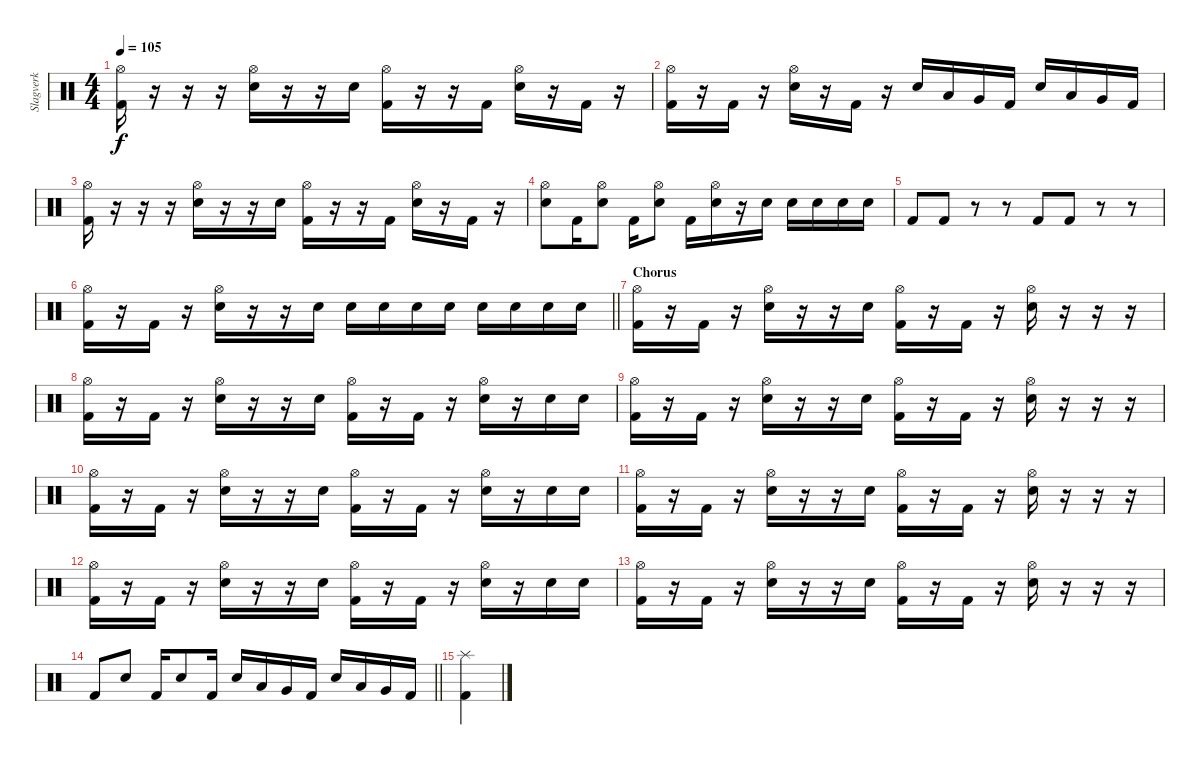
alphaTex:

\track ("Slagverk" "Slagverk") {instrument percussion}
\staff {score}
\articulation defaults
\ts (4 4)
\tempo 105
\clef neutral
\ks c
("Hi-Hat (open)" "Kick (hit) 2").16{dy f} r.16 r.16 r.16 ("Hi-Hat (open)" "Electric Snare (hit)").16 r.16 r.16 "Electric Snare (hit)".16 ("Hi-Hat (open)" "Kick (hit) 2").16 r.16 r.16 "Kick (hit) 2".16 ("Hi-Hat (open)" "Electric Snare (hit)").16 r.16 "Kick (hit) 2".16 r.16 |
("Hi-Hat (open)" "Kick (hit) 2").16 r.16 "Kick (hit) 2".16 r.16 ("Hi-Hat (open)" "Electric Snare (hit)").16 r.16 "Kick (hit) 2".16 r.16 "Electric Snare (hit)".16 "Low Tom (hit)".16 "Very Low Tom (hit)".16 "Kick (hit) 2".16 "Electric Snare (hit)".16 "Low Tom (hit)".16 "Very Low Tom (hit)".16 "Kick (hit) 2".16 |
("Hi-Hat (open)" "Kick (hit) 2").16 r.16 r.16 r.16 ("Hi-Hat (open)" "Electric Snare (hit)").16 r.16 r.16 "Electric Snare (hit)".16 ("Hi-Hat (open)" "Kick (hit) 2").16 r.16 r.16 "Kick (hit) 2".16 ("Hi-Hat (open)" "Electric Snare (hit)").16 r.16 "Kick (hit) 2".16 r.16 |
("Hi-Hat (open)" "Electric Snare (hit)").8 "Kick (hit) 2".16 ("Hi-Hat (open)" "Electric Snare (hit)").8 "Kick (hit) 2".16 ("Hi-Hat (open)" "Electric Snare (hit)").8 "Kick (hit) 2".16 ("Hi-Hat (open)" "Electric Snare (hit)").16 r.16 "Electric Snare (hit)".16 "Electric Snare (hit)".16 "Electric Snare (hit)".16 "Electric Snare (hit)".16 "Electric Snare (hit)".16 |
"Kick (hit) 2".8 "Kick (hit) 2".8 r.8 r.8 "Kick (hit) 2".8 "Kick (hit) 2".8 r.8 r.8 |
\barLineRight lightlight
("Hi-Hat (open)" "Kick (hit) 2").16 r.16 "Kick (hit) 2".16 r.16 ("Hi-Hat (open)" "Electric Snare (hit)").16 r.16 r.16 "Electric Snare (hit)".16 "Electric Snare (hit)".16 "Electric Snare (hit)".16 "Electric Snare (hit)".16 "Electric Snare (hit)".16 "Electric Snare (hit)".16 "Electric Snare (hit)".16 "Electric Snare (hit)".16 "Electric Snare (hit)".16 |
\section ("" "Chorus")
("Hi-Hat (open)" "Kick (hit) 2").16 r.16 "Kick (hit) 2".16 r.16 ("Hi-Hat (open)" "Electric Snare (hit)").16 r.16 r.16 "Electric Snare (hit)".16 ("Hi-Hat (open)" "Kick (hit) 2").16 r.16 "Kick (hit) 2".16 r.16 ("Hi-Hat (open)" "Electric Snare (hit)").16 r.16 r.16 r.16 |
("Hi-Hat (open)" "Kick (hit) 2").16 r.16 "Kick (hit) 2".16 r.16 ("Hi-Hat (open)" "Electric Snare (hit)").16 r.16 r.16 "Electric Snare (hit)".16 ("Hi-Hat (open)" "Kick (hit) 2").16 r.16 "Kick (hit) 2".16 r.16 ("Hi-Hat (open)" "Electric Snare (hit)").16 r.16 "Electric Snare (hit)".16 "Electric Snare (hit)".16 |
("Hi-Hat (open)" "Kick (hit) 2").16 r.16 "Kick (hit) 2".16 r.16 ("Hi-Hat (open)" "Electric Snare (hit)").16 r.16 r.16 "Electric Snare (hit)".16 ("Hi-Hat (open)" "Kick (hit) 2").16 r.16 "Kick (hit) 2".16 r.16 ("Hi-Hat (open)" "Electric Snare (hit)").16 r.16 r.16 r.16 |
("Hi-Hat (open)" "Kick (hit) 2").16 r.16 "Kick (hit) 2".16 r.16 ("Hi-Hat (open)" "Electric Snare (hit)").16 r.16 r.16 "Electric Snare (hit)".16 ("Hi-Hat (open)" "Kick (hit) 2").16 r.16 "Kick (hit) 2".16 r.16 ("Hi-Hat (open)" "Electric Snare (hit)").16 r.16 "Electric Snare (hit)".16 "Electric Snare (hit)".16 |
("Hi-Hat (open)" "Kick (hit) 2").16 r.16 "Kick (hit) 2".16 r.16 ("Hi-Hat (open)" "Electric Snare (hit)").16 r.16 r.16 "Electric Snare (hit)".16 ("Hi-Hat (open)" "Kick (hit) 2").16 r.16 "Kick (hit) 2".16 r.16 ("Hi-Hat (open)" "Electric Snare (hit)").16 r.16 r.16 r.16 |
("Hi-Hat (open)" "Kick (hit) 2").16 r.16 "Kick (hit) 2".16 r.16 ("Hi-Hat (open)" "Electric Snare (hit)").16 r.16 r.16 "Electric Snare (hit)".16 ("Hi-Hat (open)" "Kick (hit) 2").16 r.16 "Kick (hit) 2".16 r.16 ("Hi-Hat (open)" "Electric Snare (hit)").16 r.16 "Electric Snare (hit)".16 "Electric Snare (hit)".16 |
("Hi-Hat (open)" "Kick (hit) 2").16 r.16 "Kick (hit) 2".16 r.16 ("Hi-Hat (open)" "Electric Snare (hit)").16 r.16 r.16 "Electric Snare (hit)".16 ("Hi-Hat (open)" "Kick (hit) 2").16 r.16 "Kick (hit) 2".16 r.16 ("Hi-Hat (open)" "Electric Snare (hit)").16 r.16 r.16 r.16 |
\barLineRight lightlight "Kick (hit) 2".8 "Electric Snare (hit)".8 "Kick (hit) 2".16 "Electric Snare (hit)".8 "Kick (hit) 2".16 "Electric Snare (hit)".16 "Low Tom (hit)".16 "Very Low Tom (hit)".16 "Kick (hit) 2".16 "Electric Snare (hit)".16 "Low Tom (hit)".16 "Very Low Tom (hit)".16 "Kick (hit) 2".16
|
("Splash (hit)" "Kick (hit) 2").4
